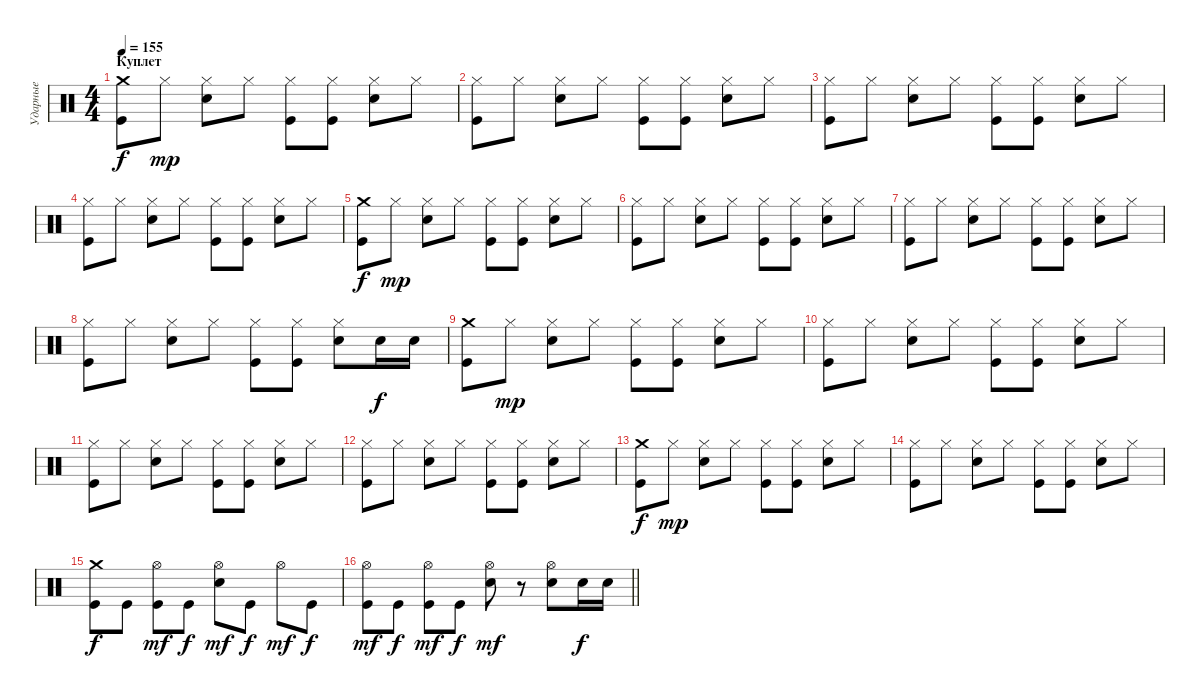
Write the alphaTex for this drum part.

\track ("Ударные" "Ударные") {instrument percussion}
\staff {score}
\articulation defaults
\ts (4 4)
\section ("" "Куплет")
\tempo 155
\clef neutral
\ks c
("Crash medium (hit)" "Kick (hit)").8{dy f} "Hi-Hat (closed)".8{dy mp} ("Hi-Hat (closed)" "Electric Snare (hit)").8 "Hi-Hat (closed)".8 ("Hi-Hat (closed)" "Kick (hit)").8 ("Hi-Hat (closed)" "Kick (hit)").8 ("Hi-Hat (closed)" "Electric Snare (hit)").8 "Hi-Hat (closed)".8 |
("Hi-Hat (closed)" "Kick (hit)").8 "Hi-Hat (closed)".8 ("Hi-Hat (closed)" "Electric Snare (hit)").8 "Hi-Hat (closed)".8 ("Hi-Hat (closed)" "Kick (hit)").8 ("Hi-Hat (closed)" "Kick (hit)").8 ("Hi-Hat (closed)" "Electric Snare (hit)").8 "Hi-Hat (closed)".8 |
("Hi-Hat (closed)" "Kick (hit)").8 "Hi-Hat (closed)".8 ("Hi-Hat (closed)" "Electric Snare (hit)").8 "Hi-Hat (closed)".8 ("Hi-Hat (closed)" "Kick (hit)").8 ("Hi-Hat (closed)" "Kick (hit)").8 ("Hi-Hat (closed)" "Electric Snare (hit)").8 "Hi-Hat (closed)".8 |
("Hi-Hat (closed)" "Kick (hit)").8 "Hi-Hat (closed)".8 ("Hi-Hat (closed)" "Electric Snare (hit)").8 "Hi-Hat (closed)".8 ("Hi-Hat (closed)" "Kick (hit)").8 ("Hi-Hat (closed)" "Kick (hit)").8 ("Hi-Hat (closed)" "Electric Snare (hit)").8 "Hi-Hat (closed)".8 |
("Crash medium (hit)" "Kick (hit)").8{dy f} "Hi-Hat (closed)".8{dy mp} ("Hi-Hat (closed)" "Electric Snare (hit)").8 "Hi-Hat (closed)".8 ("Hi-Hat (closed)" "Kick (hit)").8 ("Hi-Hat (closed)" "Kick (hit)").8 ("Hi-Hat (closed)" "Electric Snare (hit)").8 "Hi-Hat (closed)".8 |
("Hi-Hat (closed)" "Kick (hit)").8 "Hi-Hat (closed)".8 ("Hi-Hat (closed)" "Electric Snare (hit)").8 "Hi-Hat (closed)".8 ("Hi-Hat (closed)" "Kick (hit)").8 ("Hi-Hat (closed)" "Kick (hit)").8 ("Hi-Hat (closed)" "Electric Snare (hit)").8 "Hi-Hat (closed)".8 |
("Hi-Hat (closed)" "Kick (hit)").8 "Hi-Hat (closed)".8 ("Hi-Hat (closed)" "Electric Snare (hit)").8 "Hi-Hat (closed)".8 ("Hi-Hat (closed)" "Kick (hit)").8 ("Hi-Hat (closed)" "Kick (hit)").8 ("Hi-Hat (closed)" "Electric Snare (hit)").8 "Hi-Hat (closed)".8 |
("Hi-Hat (closed)" "Kick (hit)").8 "Hi-Hat (closed)".8 ("Hi-Hat (closed)" "Electric Snare (hit)").8 "Hi-Hat (closed)".8 ("Hi-Hat (closed)" "Kick (hit)").8 ("Hi-Hat (closed)" "Kick (hit)").8 ("Hi-Hat (closed)" "Electric Snare (hit)").8 "Electric Snare (hit)".16{dy f} "Electric Snare (hit)".16 |
("Crash medium (hit)" "Kick (hit)").8 "Hi-Hat (closed)".8{dy mp} ("Hi-Hat (closed)" "Electric Snare (hit)").8 "Hi-Hat (closed)".8 ("Hi-Hat (closed)" "Kick (hit)").8 ("Hi-Hat (closed)" "Kick (hit)").8 ("Hi-Hat (closed)" "Electric Snare (hit)").8 "Hi-Hat (closed)".8 |
("Hi-Hat (closed)" "Kick (hit)").8 "Hi-Hat (closed)".8 ("Hi-Hat (closed)" "Electric Snare (hit)").8 "Hi-Hat (closed)".8 ("Hi-Hat (closed)" "Kick (hit)").8 ("Hi-Hat (closed)" "Kick (hit)").8 ("Hi-Hat (closed)" "Electric Snare (hit)").8 "Hi-Hat (closed)".8 |
("Hi-Hat (closed)" "Kick (hit)").8 "Hi-Hat (closed)".8 ("Hi-Hat (closed)" "Electric Snare (hit)").8 "Hi-Hat (closed)".8 ("Hi-Hat (closed)" "Kick (hit)").8 ("Hi-Hat (closed)" "Kick (hit)").8 ("Hi-Hat (closed)" "Electric Snare (hit)").8 "Hi-Hat (closed)".8 |
("Hi-Hat (closed)" "Kick (hit)").8 "Hi-Hat (closed)".8 ("Hi-Hat (closed)" "Electric Snare (hit)").8 "Hi-Hat (closed)".8 ("Hi-Hat (closed)" "Kick (hit)").8 ("Hi-Hat (closed)" "Kick (hit)").8 ("Hi-Hat (closed)" "Electric Snare (hit)").8 "Hi-Hat (closed)".8 |
("Crash medium (hit)" "Kick (hit)").8{dy f} "Hi-Hat (closed)".8{dy mp} ("Hi-Hat (closed)" "Electric Snare (hit)").8 "Hi-Hat (closed)".8 ("Hi-Hat (closed)" "Kick (hit)").8 ("Hi-Hat (closed)" "Kick (hit)").8 ("Hi-Hat (closed)" "Electric Snare (hit)").8 "Hi-Hat (closed)".8 |
("Hi-Hat (closed)" "Kick (hit)").8 "Hi-Hat (closed)".8 ("Hi-Hat (closed)" "Electric Snare (hit)").8 "Hi-Hat (closed)".8 ("Hi-Hat (closed)" "Kick (hit)").8 ("Hi-Hat (closed)" "Kick (hit)").8 ("Hi-Hat (closed)" "Electric Snare (hit)").8 "Hi-Hat (closed)".8 |
("Crash medium (hit)" "Kick (hit)").8{dy f} "Kick (hit)".8 ("Hi-Hat (open)" "Kick (hit)").8{dy mf} "Kick (hit)".8{dy f} ("Hi-Hat (open)" "Electric Snare (hit)").8{dy mf} "Kick (hit)".8{dy f} "Hi-Hat (open)".8{dy mf} "Kick (hit)".8{dy f} |
\barLineRight lightlight
("Hi-Hat (open)" "Kick (hit)").8{dy mf} "Kick (hit)".8{dy f} ("Hi-Hat (open)" "Kick (hit)").8{dy mf} "Kick (hit)".8{dy f} ("Hi-Hat (open)" "Electric Snare (hit)").8{dy mf} r.8 ("Hi-Hat (open)" "Electric Snare (hit)").8 "Electric Snare (hit)".16{dy f} "Electric Snare (hit)".16
